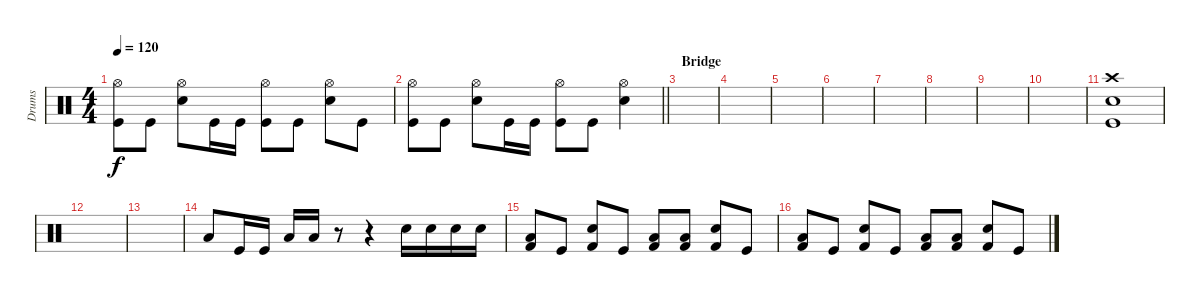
\track ("Drums" "Drums") {instrument percussion}
\staff {score}
\articulation defaults
\ts (4 4)
\tempo 120
\clef neutral
\ks c
("Hi-Hat (open)" "Kick (hit)").8{dy f} "Kick (hit)".8 ("Hi-Hat (open)" "Electric Snare (hit)").8 "Kick (hit)".16 "Kick (hit)".16 ("Hi-Hat (open)" "Kick (hit)").8 "Kick (hit)".8 ("Hi-Hat (open)" "Electric Snare (hit)").8 "Kick (hit)".8 |
\barLineRight lightlight
("Hi-Hat (open)" "Kick (hit)").8 "Kick (hit)".8 ("Hi-Hat (open)" "Electric Snare (hit)").8 "Kick (hit)".16 "Kick (hit)".16 ("Hi-Hat (open)" "Kick (hit)").8 "Kick (hit)".8 ("Hi-Hat (open)" "Electric Snare (hit)").4 |
\section ("" "Bridge")
|
|
|
|
|
|
|
|
("Crash high (hit)" "Electric Snare (hit)" "Kick (hit)").1 |
|
|
"Low Floor Tom (hit)".8 "Kick (hit)".16 "Kick (hit)".16 "Low Floor Tom (hit)".16 "Low Floor Tom (hit)".16 r.8 r.4 "Electric Snare (hit)".16 "Electric Snare (hit)".16 "Electric Snare (hit)".16 "Electric Snare (hit)".16 |
("Low Floor Tom (hit)" "Kick (hit) 2").8 "Kick (hit)".8 ("Electric Snare (hit)" "Kick (hit) 2").8 "Kick (hit)".8 ("Low Floor Tom (hit)" "Kick (hit) 2").8 ("Low Floor Tom (hit)" "Kick (hit) 2").8 ("Electric Snare (hit)" "Kick (hit) 2").8 "Kick (hit)".8 |
("Low Floor Tom (hit)" "Kick (hit) 2").8 "Kick (hit)".8 ("Electric Snare (hit)" "Kick (hit) 2").8 "Kick (hit)".8 ("Low Floor Tom (hit)" "Kick (hit) 2").8 ("Low Floor Tom (hit)" "Kick (hit) 2").8 ("Electric Snare (hit)" "Kick (hit) 2").8 "Kick (hit)".8
